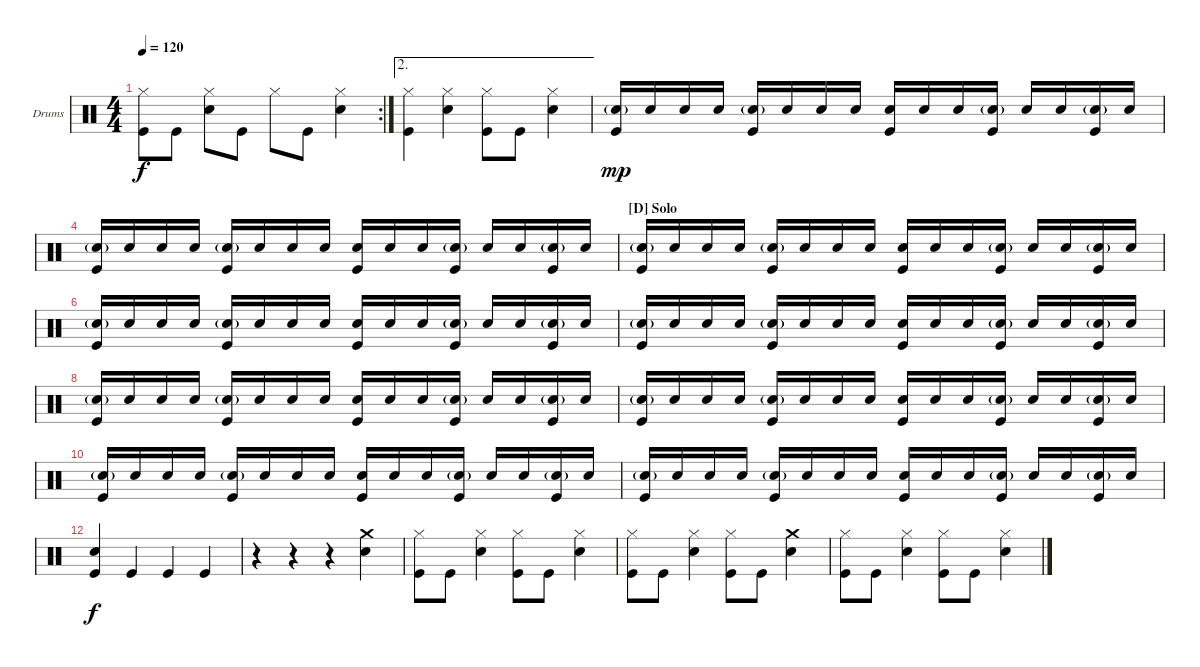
\bracketExtendMode nobrackets
\firstSystemTrackNameOrientation horizontal
\otherSystemsTrackNameOrientation horizontal
\defaultBarNumberDisplay FirstOfSystem
\track ("Drumkit" "Drums") {instrument percussion}
\staff {score}
\articulation defaults
\rc 2
\ts (4 4)
\tempo 120
\clef neutral
\scale
0.267857
\ks c
("Hi-Hat (closed)" "Kick (hit)").8{dy f} "Kick (hit)".8 ("Hi-Hat (closed)" "Snare (hit) 2").8 "Kick (hit)".8 "Hi-Hat (closed)".8 "Kick (hit)".8 ("Hi-Hat (closed)" "Snare (hit) 2").4 |
\ae 2
("Hi-Hat (closed)" "Kick (hit)").4 ("Hi-Hat (closed)" "Snare (hit) 2").4 ("Hi-Hat (closed)" "Kick (hit)").8 "Kick (hit)".8 ("Hi-Hat (closed)" "Snare (hit) 2").4 |
("Snare (hit) 2"{g} "Kick (hit)").16{dy mp} "Snare (hit) 2".16 "Snare (hit) 2".16 "Snare (hit) 2".16 ("Snare (hit) 2"{g} "Kick (hit)").16 "Snare (hit) 2".16 "Snare (hit) 2".16 "Snare (hit) 2".16 ("Snare (hit) 2" "Kick (hit)").16 "Snare (hit) 2".16 "Snare (hit) 2".16 ("Snare (hit) 2"{g} "Kick (hit)").16 "Snare (hit) 2".16 "Snare (hit) 2".16 ("Snare (hit) 2"{g} "Kick (hit)").16 "Snare (hit) 2".16 |
\scale
0.25 ("Snare (hit) 2"{g} "Kick (hit)").16 "Snare (hit) 2".16 "Snare (hit) 2".16 "Snare (hit) 2".16 ("Snare (hit) 2"{g} "Kick (hit)").16 "Snare (hit) 2".16 "Snare (hit) 2".16 "Snare (hit) 2".16 ("Snare (hit) 2" "Kick (hit)").16 "Snare (hit) 2".16 "Snare (hit) 2".16 ("Snare (hit) 2"{g} "Kick (hit)").16 "Snare (hit) 2".16 "Snare (hit) 2".16 ("Snare (hit) 2"{g} "Kick (hit)").16 "Snare (hit) 2".16 |
\section ("D" "Solo")
\scale
0.25 ("Snare (hit) 2"{g} "Kick (hit)").16 "Snare (hit) 2".16 "Snare (hit) 2".16 "Snare (hit) 2".16 ("Snare (hit) 2"{g} "Kick (hit)").16 "Snare (hit) 2".16 "Snare (hit) 2".16 "Snare (hit) 2".16 ("Snare (hit) 2" "Kick (hit)").16 "Snare (hit) 2".16 "Snare (hit) 2".16 ("Snare (hit) 2"{g} "Kick (hit)").16 "Snare (hit) 2".16 "Snare (hit) 2".16 ("Snare (hit) 2"{g} "Kick (hit)").16 "Snare (hit) 2".16 |
\scale
0.25 ("Snare (hit) 2"{g} "Kick (hit)").16 "Snare (hit) 2".16 "Snare (hit) 2".16 "Snare (hit) 2".16 ("Snare (hit) 2"{g} "Kick (hit)").16 "Snare (hit) 2".16 "Snare (hit) 2".16 "Snare (hit) 2".16 ("Snare (hit) 2" "Kick (hit)").16 "Snare (hit) 2".16 "Snare (hit) 2".16 ("Snare (hit) 2"{g} "Kick (hit)").16 "Snare (hit) 2".16 "Snare (hit) 2".16 ("Snare (hit) 2"{g} "Kick (hit)").16 "Snare (hit) 2".16 |
\scale
0.25 ("Snare (hit) 2"{g} "Kick (hit)").16 "Snare (hit) 2".16 "Snare (hit) 2".16 "Snare (hit) 2".16 ("Snare (hit) 2"{g} "Kick (hit)").16 "Snare (hit) 2".16 "Snare (hit) 2".16 "Snare (hit) 2".16 ("Snare (hit) 2" "Kick (hit)").16 "Snare (hit) 2".16 "Snare (hit) 2".16 ("Snare (hit) 2"{g} "Kick (hit)").16 "Snare (hit) 2".16 "Snare (hit) 2".16 ("Snare (hit) 2"{g} "Kick (hit)").16 "Snare (hit) 2".16 |
\scale
0.25 ("Snare (hit) 2"{g} "Kick (hit)").16 "Snare (hit) 2".16 "Snare (hit) 2".16 "Snare (hit) 2".16 ("Snare (hit) 2"{g} "Kick (hit)").16 "Snare (hit) 2".16 "Snare (hit) 2".16 "Snare (hit) 2".16 ("Snare (hit) 2" "Kick (hit)").16 "Snare (hit) 2".16 "Snare (hit) 2".16 ("Snare (hit) 2"{g} "Kick (hit)").16 "Snare (hit) 2".16 "Snare (hit) 2".16 ("Snare (hit) 2"{g} "Kick (hit)").16 "Snare (hit) 2".16 |
\scale
0.25 ("Snare (hit) 2"{g} "Kick (hit)").16 "Snare (hit) 2".16 "Snare (hit) 2".16 "Snare (hit) 2".16 ("Snare (hit) 2"{g} "Kick (hit)").16 "Snare (hit) 2".16 "Snare (hit) 2".16 "Snare (hit) 2".16 ("Snare (hit) 2" "Kick (hit)").16 "Snare (hit) 2".16 "Snare (hit) 2".16 ("Snare (hit) 2"{g} "Kick (hit)").16 "Snare (hit) 2".16 "Snare (hit) 2".16 ("Snare (hit) 2"{g} "Kick (hit)").16 "Snare (hit) 2".16 |
\scale
0.25 ("Snare (hit) 2"{g} "Kick (hit)").16 "Snare (hit) 2".16 "Snare (hit) 2".16 "Snare (hit) 2".16 ("Snare (hit) 2"{g} "Kick (hit)").16 "Snare (hit) 2".16 "Snare (hit) 2".16 "Snare (hit) 2".16 ("Snare (hit) 2" "Kick (hit)").16 "Snare (hit) 2".16 "Snare (hit) 2".16 ("Snare (hit) 2"{g} "Kick (hit)").16 "Snare (hit) 2".16 "Snare (hit) 2".16 ("Snare (hit) 2"{g} "Kick (hit)").16 "Snare (hit) 2".16 |
\scale
0.394904 ("Snare (hit) 2"{g} "Kick (hit)").16 "Snare (hit) 2".16 "Snare (hit) 2".16 "Snare (hit) 2".16 ("Snare (hit) 2"{g} "Kick (hit)").16 "Snare (hit) 2".16 "Snare (hit) 2".16 "Snare (hit) 2".16 ("Snare (hit) 2" "Kick (hit)").16 "Snare (hit) 2".16 "Snare (hit) 2".16 ("Snare (hit) 2"{g} "Kick (hit)").16 "Snare (hit) 2".16 "Snare (hit) 2".16 ("Snare (hit) 2"{g} "Kick (hit)").16 "Snare (hit) 2".16 |
\scale
0.191083 ("Snare (hit) 2" "Kick (hit)").4{dy f} "Kick (hit)".4 "Kick (hit)".4 "Kick (hit)".4 |
\scale
0.191083 r.4 r.4 r.4 ("Crash medium (hit)" "Snare (hit) 2").4 |
\scale
0.22293 ("Hi-Hat (closed)" "Kick (hit)").8 "Kick (hit)".8 ("Hi-Hat (closed)" "Snare (hit) 2").4 ("Hi-Hat (closed)" "Kick (hit)").8 "Kick (hit)".8 ("Hi-Hat (closed)" "Snare (hit) 2").4 |
\scale
0.25 ("Hi-Hat (closed)" "Kick (hit)").8 "Kick (hit)".8 ("Hi-Hat (closed)" "Snare (hit) 2").4 ("Hi-Hat (closed)" "Kick (hit)").8 "Kick (hit)".8 ("Crash medium (hit)" "Snare (hit) 2").4 |
\scale
0.25 ("Hi-Hat (closed)" "Kick (hit)").8 "Kick (hit)".8 ("Hi-Hat (closed)" "Snare (hit) 2").4 ("Hi-Hat (closed)" "Kick (hit)").8 "Kick (hit)".8 ("Hi-Hat (closed)" "Snare (hit) 2").4
